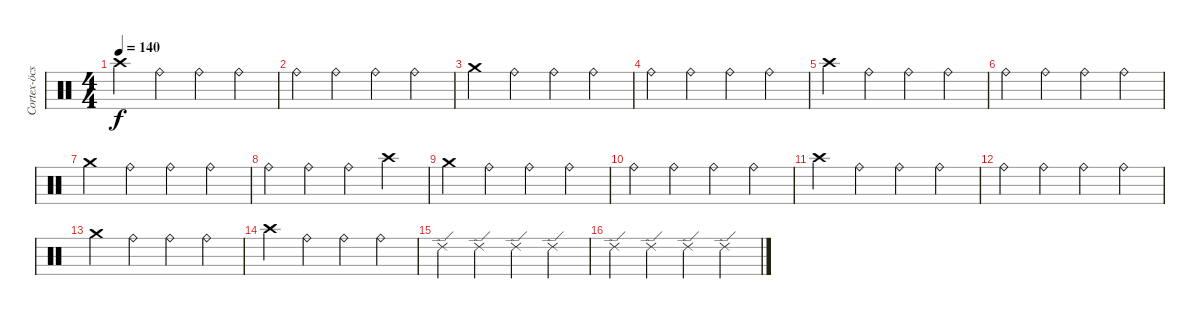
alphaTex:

\track ("Cortex-öcsi :)" "Cortex-öcs") {instrument percussion}
\staff {score}
\articulation defaults
\ts (4 4)
\tempo 140
\clef neutral
\ks c "Crash high (hit)".4{dy f} "Ride (bell)".4 "Ride (bell)".4 "Ride (bell)".4
|
"Ride (bell)".4 "Ride (bell)".4 "Ride (bell)".4 "Ride (bell)".4 |
"Crash medium (hit)".4 "Ride (bell)".4 "Ride (bell)".4 "Ride (bell)".4 |
"Ride (bell)".4 "Ride (bell)".4 "Ride (bell)".4 "Ride (bell)".4 |
"Crash high (hit)".4 "Ride (bell)".4 "Ride (bell)".4 "Ride (bell)".4 |
"Ride (bell)".4 "Ride (bell)".4 "Ride (bell)".4 "Ride (bell)".4 |
"Crash medium (hit)".4 "Ride (bell)".4 "Ride (bell)".4 "Ride (bell)".4 |
"Ride (bell)".4 "Ride (bell)".4 "Ride (bell)".4 "Crash high (hit)".4 |
"Crash medium (hit)".4 "Ride (bell)".4 "Ride (bell)".4 "Ride (bell)".4 |
"Ride (bell)".4 "Ride (bell)".4 "Ride (bell)".4 "Ride (bell)".4 |
"Crash high (hit)".4 "Ride (bell)".4 "Ride (bell)".4 "Ride (bell)".4 |
"Ride (bell)".4 "Ride (bell)".4 "Ride (bell)".4 "Ride (bell)".4 |
"Crash medium (hit)".4 "Ride (bell)".4 "Ride (bell)".4 "Ride (bell)".4 |
"Crash high (hit)".4 "Ride (bell)".4 "Ride (bell)".4 "Ride (bell)".4 |
"Ride (edge) 2".4 "Ride (edge) 2".4 "Ride (edge) 2".4 "Ride (edge) 2".4 |
"Ride (edge) 2".4 "Ride (edge) 2".4 "Ride (edge) 2".4 "Ride (edge) 2".4
